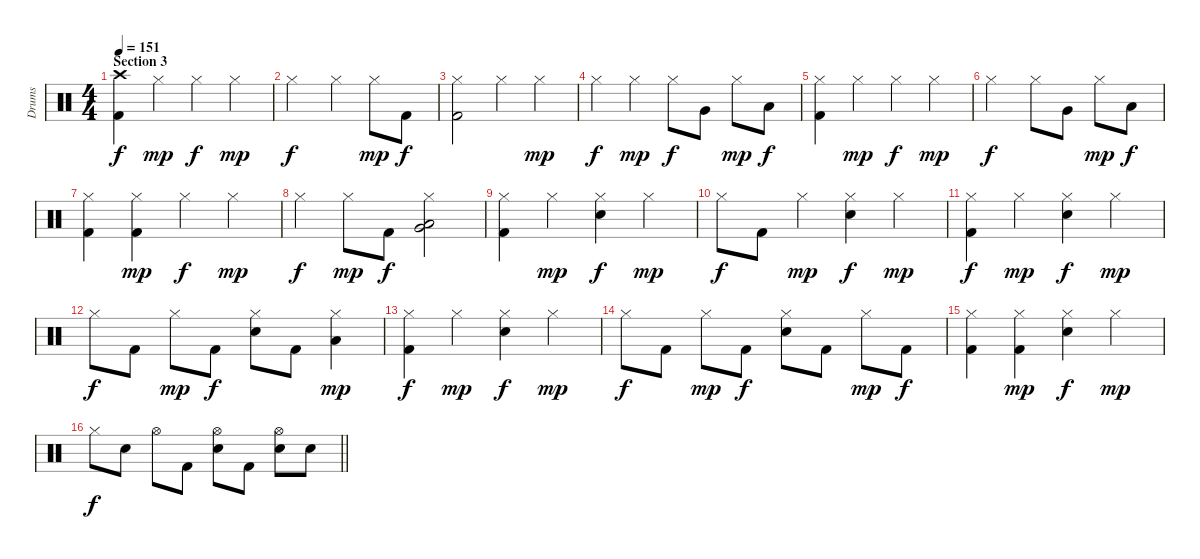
\track ("Drums" "Drums") {instrument percussion}
\staff {score}
\articulation defaults
\ts (4 4)
\section ("" "Section 3")
\tempo 151
\clef neutral
\ks c
("Crash high (hit)" "Kick (hit) 2").4{dy f} "Hi-Hat (closed)".4{dy mp} "Hi-Hat (closed)".4{dy f} "Hi-Hat (closed)".4{dy mp} |
"Hi-Hat (closed)".2{dy f} "Hi-Hat (closed)".4 "Hi-Hat (closed)".8{dy mp} "Kick (hit) 2".8{dy f} |
("Hi-Hat (closed)" "Kick (hit) 2").2 "Hi-Hat (closed)".4 "Hi-Hat (closed)".4{dy mp} |
"Hi-Hat (closed)".4{dy f} "Hi-Hat (closed)".4{dy mp} "Hi-Hat (closed)".8{dy f} "Very Low Tom (hit)".8 "Hi-Hat (closed)".8{dy mp} "Low Floor Tom (hit)".8{dy f} |
("Hi-Hat (closed)" "Kick (hit) 2").4 "Hi-Hat (closed)".4{dy mp} "Hi-Hat (closed)".4{dy f} "Hi-Hat (closed)".4{dy mp} |
"Hi-Hat (closed)".2{dy f} "Hi-Hat (closed)".8 "Very Low Tom (hit)".8 "Hi-Hat (closed)".8{dy mp} "Low Floor Tom (hit)".8{dy f} |
("Hi-Hat (closed)" "Kick (hit) 2").4 ("Hi-Hat (closed)" "Kick (hit) 2").4{dy mp} "Hi-Hat (closed)".4{dy f} "Hi-Hat (closed)".4{dy mp} |
"Hi-Hat (closed)".4{dy f} "Hi-Hat (closed)".8{dy mp} "Kick (hit) 2".8{dy f} ("Hi-Hat (closed)" "Very Low Tom (hit)" "Low Floor Tom (hit)").2 |
("Hi-Hat (closed)" "Kick (hit) 2").4 "Hi-Hat (closed)".4{dy mp} ("Hi-Hat (closed)" "Snare (hit) 2").4{dy f} "Hi-Hat (closed)".4{dy mp} |
"Hi-Hat (closed)".8{dy f} "Kick (hit) 2".8 "Hi-Hat (closed)".4{dy mp} ("Hi-Hat (closed)" "Snare (hit) 2").4{dy f} "Hi-Hat (closed)".4{dy mp} |
("Hi-Hat (closed)" "Kick (hit) 2").4{dy f} "Hi-Hat (closed)".4{dy mp} ("Hi-Hat (closed)" "Snare (hit) 2").4{dy f} "Hi-Hat (closed)".4{dy mp} |
"Hi-Hat (closed)".8{dy f} "Kick (hit) 2".8 "Hi-Hat (closed)".8{dy mp} "Kick (hit) 2".8{dy f} ("Hi-Hat (closed)" "Snare (hit) 2").8 "Kick (hit) 2".8 ("Hi-Hat (closed)" "Low Tom (hit)").4{dy mp} |
("Hi-Hat (closed)" "Kick (hit) 2").4{dy f} "Hi-Hat (closed)".4{dy mp} ("Hi-Hat (closed)" "Snare (hit) 2").4{dy f} "Hi-Hat (closed)".4{dy mp} |
"Hi-Hat (closed)".8{dy f} "Kick (hit) 2".8 "Hi-Hat (closed)".8{dy mp} "Kick (hit) 2".8{dy f} ("Hi-Hat (closed)" "Snare (hit) 2").8 "Kick (hit) 2".8 "Hi-Hat (closed)".8{dy mp} "Kick (hit) 2".8{dy f} |
("Hi-Hat (closed)" "Kick (hit) 2").4 ("Hi-Hat (closed)" "Kick (hit) 2").4{dy mp} ("Hi-Hat (closed)" "Snare (hit) 2").4{dy f} "Hi-Hat (closed)".4{dy mp} |
\barLineRight lightlight "Hi-Hat (closed)".8{dy f} "Snare (hit) 2".8 "Hi-Hat (open)".8 "Kick (hit) 2".8
("Hi-Hat (open)" "Snare (hit) 2").8 "Kick (hit) 2".8 ("Hi-Hat (open)" "Snare (hit) 2").8 "Snare (hit) 2".8
